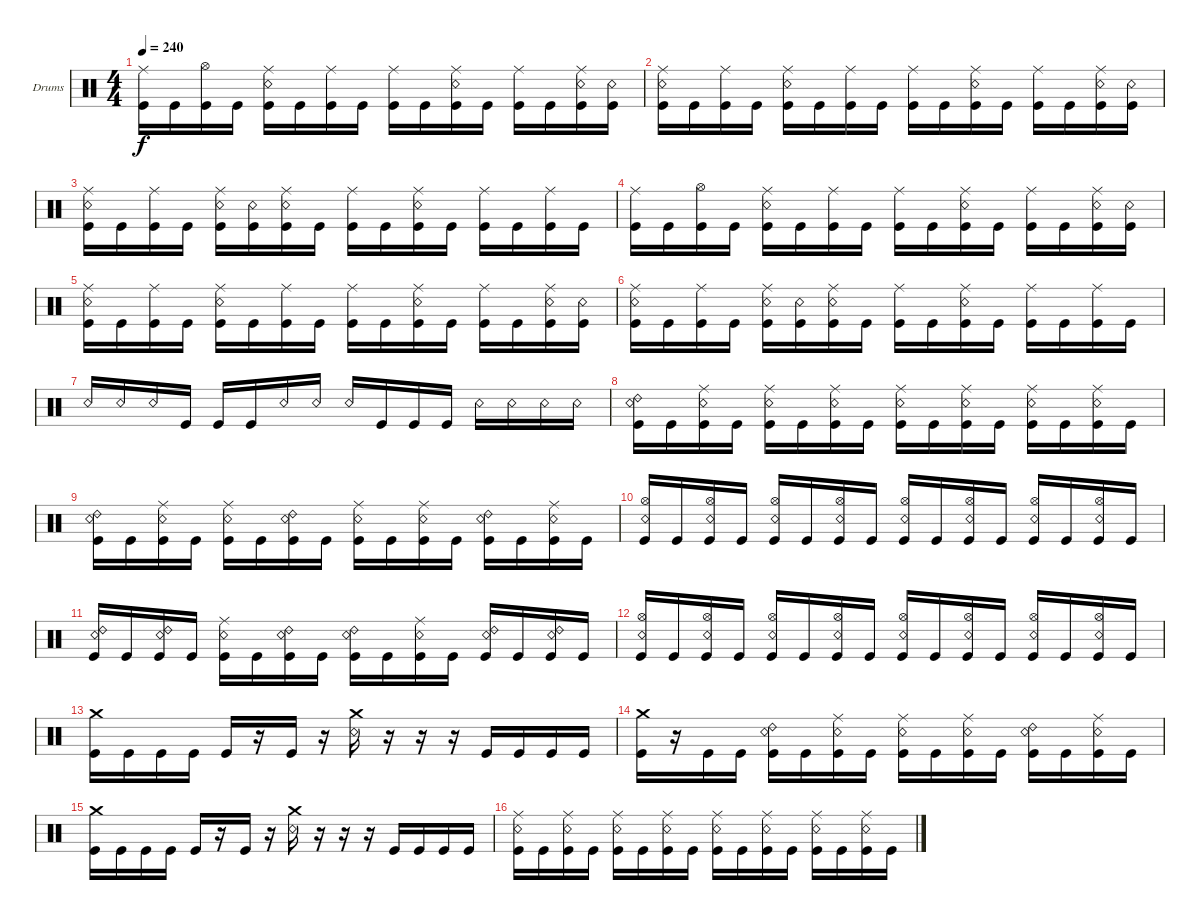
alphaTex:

\bracketExtendMode groupsimilarinstruments
\firstSystemTrackNameOrientation horizontal
\otherSystemsTrackNameOrientation horizontal
\track ("Drumkit" "Drums") {instrument percussion}
\staff {score}
\articulation defaults
\ts (4 4)
\tempo 240
\clef neutral
\ks c
("Ride (middle)" "Kick (hit)").16{dy f} "Kick (hit)".16 ("Kick (hit)" "Hi-Hat (open)").16 "Kick (hit)".16 ("Ride (middle)" "Snare (rim shot)" "Kick (hit)").16 "Kick (hit)".16 ("Kick (hit)" "Ride (middle)").16 "Kick (hit)".16 ("Ride (middle)" "Kick (hit)").16 "Kick (hit)".16 ("Snare (rim shot)" "Kick (hit)" "Ride (middle)").16 "Kick (hit)".16 ("Ride (middle)" "Kick (hit)").16 "Kick (hit)".16 ("Snare (rim shot)" "Kick (hit)" "Ride (middle)").16 ("Snare (rim shot)" "Kick (hit)").16 |
("Ride (middle)" "Snare (rim shot)" "Kick (hit)").16 "Kick (hit)".16 ("Kick (hit)" "Ride (middle)").16 "Kick (hit)".16 ("Ride (middle)" "Snare (rim shot)" "Kick (hit)").16 "Kick (hit)".16 ("Kick (hit)" "Ride (middle)").16 "Kick (hit)".16 ("Ride (middle)" "Kick (hit)").16 "Kick (hit)".16 ("Snare (rim shot)" "Kick (hit)" "Ride (middle)").16 "Kick (hit)".16 ("Ride (middle)" "Kick (hit)").16 "Kick (hit)".16 ("Snare (rim shot)" "Kick (hit)" "Ride (middle)").16 ("Snare (rim shot)" "Kick (hit)").16 |
("Ride (middle)" "Snare (rim shot)" "Kick (hit)").16 "Kick (hit)".16 ("Kick (hit)" "Ride (middle)").16 "Kick (hit)".16 ("Ride (middle)" "Snare (rim shot)" "Kick (hit)").16 ("Snare (rim shot)" "Kick (hit)").16 ("Snare (rim shot)" "Kick (hit)" "Ride (middle)").16 "Kick (hit)".16 ("Ride (middle)" "Kick (hit)").16 "Kick (hit)".16 ("Snare (rim shot)" "Kick (hit)" "Ride (middle)").16 "Kick (hit)".16 ("Ride (middle)" "Kick (hit)").16 "Kick (hit)".16 ("Kick (hit)" "Ride (middle)").16 "Kick (hit)".16 |
("Ride (middle)" "Kick (hit)").16 "Kick (hit)".16 ("Kick (hit)" "Hi-Hat (open)").16 "Kick (hit)".16 ("Ride (middle)" "Snare (rim shot)" "Kick (hit)").16 "Kick (hit)".16 ("Kick (hit)" "Ride (middle)").16 "Kick (hit)".16 ("Ride (middle)" "Kick (hit)").16 "Kick (hit)".16 ("Snare (rim shot)" "Kick (hit)" "Ride (middle)").16 "Kick (hit)".16 ("Ride (middle)" "Kick (hit)").16 "Kick (hit)".16 ("Snare (rim shot)" "Kick (hit)" "Ride (middle)").16 ("Snare (rim shot)" "Kick (hit)").16 |
("Ride (middle)" "Snare (rim shot)" "Kick (hit)").16 "Kick (hit)".16 ("Kick (hit)" "Ride (middle)").16 "Kick (hit)".16 ("Ride (middle)" "Snare (rim shot)" "Kick (hit)").16 "Kick (hit)".16 ("Kick (hit)" "Ride (middle)").16 "Kick (hit)".16 ("Ride (middle)" "Kick (hit)").16 "Kick (hit)".16 ("Snare (rim shot)" "Kick (hit)" "Ride (middle)").16 "Kick (hit)".16 ("Ride (middle)" "Kick (hit)").16 "Kick (hit)".16 ("Snare (rim shot)" "Kick (hit)" "Ride (middle)").16 ("Snare (rim shot)" "Kick (hit)").16 |
("Ride (middle)" "Snare (rim shot)" "Kick (hit)").16 "Kick (hit)".16 ("Kick (hit)" "Ride (middle)").16 "Kick (hit)".16 ("Ride (middle)" "Snare (rim shot)" "Kick (hit)").16 ("Snare (rim shot)" "Kick (hit)").16 ("Snare (rim shot)" "Kick (hit)" "Ride (middle)").16 "Kick (hit)".16 ("Ride (middle)" "Kick (hit)").16 "Kick (hit)".16 ("Snare (rim shot)" "Kick (hit)" "Ride (middle)").16 "Kick (hit)".16 ("Ride (middle)" "Kick (hit)").16 "Kick (hit)".16 ("Kick (hit)" "Ride (middle)").16 "Kick (hit)".16 |
"Snare (rim shot)".16 "Snare (rim shot)".16 "Snare (rim shot)".16 "Kick (hit)".16 "Kick (hit)".16 "Kick (hit)".16 "Snare (rim shot)".16 "Snare (rim shot)".16 "Snare (rim shot)".16 "Kick (hit)".16 "Kick (hit)".16 "Kick (hit)".16 "Snare (rim shot)".16 "Snare (rim shot)".16 "Snare (rim shot)".16 "Snare (rim shot)".16 |
("Snare (rim shot)" "Ride (bell) 2" "Kick (hit)").16 "Kick (hit)".16 ("Snare (rim shot)" "Ride (middle)" "Kick (hit)").16 "Kick (hit)".16 ("Snare (rim shot)" "Ride (middle)" "Kick (hit)").16 "Kick (hit)".16 ("Snare (rim shot)" "Ride (middle)" "Kick (hit)").16 "Kick (hit)".16 ("Snare (rim shot)" "Ride (middle)" "Kick (hit)").16 "Kick (hit)".16 ("Snare (rim shot)" "Ride (middle)" "Kick (hit)").16 "Kick (hit)".16 ("Snare (rim shot)" "Ride (middle)" "Kick (hit)").16 "Kick (hit)".16 ("Snare (rim shot)" "Ride (middle)" "Kick (hit)").16 "Kick (hit)".16 |
("Snare (rim shot)" "Ride (bell) 2" "Kick (hit)").16 "Kick (hit)".16 ("Snare (rim shot)" "Ride (middle)" "Kick (hit)").16 "Kick (hit)".16 ("Snare (rim shot)" "Ride (middle)" "Kick (hit)").16 "Kick (hit)".16 ("Snare (rim shot)" "Ride (bell) 2" "Kick (hit)").16 "Kick (hit)".16 ("Snare (rim shot)" "Ride (middle)" "Kick (hit)").16 "Kick (hit)".16 ("Snare (rim shot)" "Ride (middle)" "Kick (hit)").16 "Kick (hit)".16 ("Snare (rim shot)" "Ride (bell) 2" "Kick (hit)").16 "Kick (hit)".16 ("Snare (rim shot)" "Ride (middle)" "Kick (hit)").16 "Kick (hit)".16 |
("Snare (rim shot)" "Hi-Hat (open)" "Kick (hit)").16 "Kick (hit)".16 ("Snare (rim shot)" "Hi-Hat (open)" "Kick (hit)").16 "Kick (hit)".16 ("Snare (rim shot)" "Hi-Hat (open)" "Kick (hit)").16 "Kick (hit)".16 ("Snare (rim shot)" "Hi-Hat (open)" "Kick (hit)").16 "Kick (hit)".16 ("Snare (rim shot)" "Hi-Hat (open)" "Kick (hit)").16 "Kick (hit)".16 ("Snare (rim shot)" "Hi-Hat (open)" "Kick (hit)").16 "Kick (hit)".16 ("Snare (rim shot)" "Hi-Hat (open)" "Kick (hit)").16 "Kick (hit)".16 ("Snare (rim shot)" "Hi-Hat (open)" "Kick (hit)").16 "Kick (hit)".16 |
("Snare (rim shot)" "Ride (bell) 2" "Kick (hit)").16 "Kick (hit)".16 ("Snare (rim shot)" "Ride (bell) 2" "Kick (hit)").16 "Kick (hit)".16 ("Snare (rim shot)" "Ride (middle)" "Kick (hit)").16 "Kick (hit)".16 ("Snare (rim shot)" "Ride (bell) 2" "Kick (hit)").16 "Kick (hit)".16 ("Snare (rim shot)" "Ride (bell) 2" "Kick (hit)").16 "Kick (hit)".16 ("Snare (rim shot)" "Ride (middle)" "Kick (hit)").16 "Kick (hit)".16 ("Snare (rim shot)" "Ride (bell) 2" "Kick (hit)").16 "Kick (hit)".16 ("Snare (rim shot)" "Ride (bell) 2" "Kick (hit)").16 "Kick (hit)".16 |
("Snare (rim shot)" "Hi-Hat (open)" "Kick (hit)").16 "Kick (hit)".16 ("Snare (rim shot)" "Hi-Hat (open)" "Kick (hit)").16 "Kick (hit)".16 ("Snare (rim shot)" "Hi-Hat (open)" "Kick (hit)").16 "Kick (hit)".16 ("Snare (rim shot)" "Hi-Hat (open)" "Kick (hit)").16 "Kick (hit)".16 ("Snare (rim shot)" "Hi-Hat (open)" "Kick (hit)").16 "Kick (hit)".16 ("Snare (rim shot)" "Hi-Hat (open)" "Kick (hit)").16 "Kick (hit)".16 ("Snare (rim shot)" "Hi-Hat (open)" "Kick (hit)").16 "Kick (hit)".16 ("Snare (rim shot)" "Hi-Hat (open)" "Kick (hit)").16 "Kick (hit)".16 |
("Kick (hit)" "Crash medium (hit)").16 "Kick (hit)".16 "Kick (hit)".16 "Kick (hit)".16 "Kick (hit)".16 r.16 "Kick (hit)".16 r.16 ("Crash medium (hit)" "Snare (rim shot)").16 r.16 r.16 r.16 "Kick (hit)".16 "Kick (hit)".16 "Kick (hit)".16 "Kick (hit)".16 |
("Kick (hit)" "Crash medium (hit)").16 r.16 "Kick (hit)".16 "Kick (hit)".16 ("Kick (hit)" "Ride (bell) 2" "Snare (rim shot)").16 "Kick (hit)".16 ("Kick (hit)" "Ride (middle)" "Snare (rim shot)").16 "Kick (hit)".16 ("Kick (hit)" "Ride (middle)" "Snare (rim shot)").16 "Kick (hit)".16 ("Kick (hit)" "Ride (middle)" "Snare (rim shot)").16 "Kick (hit)".16 ("Kick (hit)" "Ride (bell) 2" "Snare (rim shot)").16 "Kick (hit)".16 ("Kick (hit)" "Ride (middle)" "Snare (rim shot)").16 "Kick (hit)".16 |
("Kick (hit)" "Crash medium (hit)").16 "Kick (hit)".16 "Kick (hit)".16 "Kick (hit)".16 "Kick (hit)".16 r.16 "Kick (hit)".16 r.16 ("Crash medium (hit)" "Snare (rim shot)").16 r.16 r.16 r.16 "Kick (hit)".16 "Kick (hit)".16 "Kick (hit)".16 "Kick (hit)".16 |
("Kick (hit)" "Ride (middle)" "Snare (rim shot)").16 "Kick (hit)".16 ("Kick (hit)" "Ride (middle)" "Snare (rim shot)").16 "Kick (hit)".16 ("Kick (hit)" "Ride (middle)" "Snare (rim shot)").16 "Kick (hit)".16 ("Kick (hit)" "Ride (middle)" "Snare (rim shot)").16 "Kick (hit)".16 ("Kick (hit)" "Ride (middle)" "Snare (rim shot)").16 "Kick (hit)".16 ("Kick (hit)" "Ride (middle)" "Snare (rim shot)").16 "Kick (hit)".16 ("Kick (hit)" "Ride (middle)" "Snare (rim shot)").16 "Kick (hit)".16 ("Kick (hit)" "Ride (middle)" "Snare (rim shot)").16 "Kick (hit)".16
